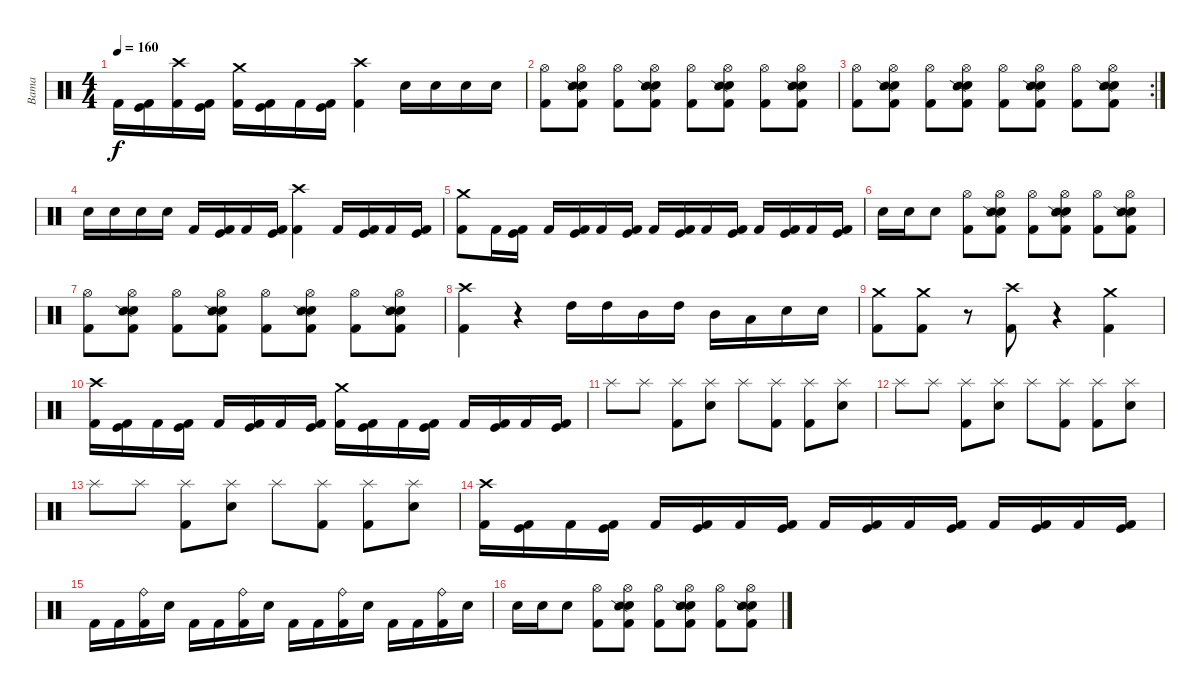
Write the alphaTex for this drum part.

\track ("Bama" "Bama") {instrument percussion}
\staff {score}
\articulation defaults
\ts (4 4)
\tempo 160
\clef neutral
\ks c "Kick (hit) 2".16{dy f}
("Kick (hit)" "Kick (hit) 2").16 ("Crash high (hit)" "Kick (hit) 2").16 ("Kick (hit)" "Kick (hit) 2").16 ("Crash medium (hit)" "Kick (hit) 2").16 ("Kick (hit)" "Kick (hit) 2").16 "Kick (hit) 2".16 ("Kick (hit)" "Kick (hit) 2").16 ("Crash high (hit)" "Kick (hit) 2").4 "Electric Snare (hit)".16 "Electric Snare (hit)".16 "Electric Snare (hit)".16 "Electric Snare (hit)".16 |
("Hi-Hat (open)" "Kick (hit) 2").8 ("Hi-Hat (open)" "Electric Snare (hit)" "Snare (side stick) 2" "Kick (hit) 2").8 ("Hi-Hat (open)" "Kick (hit) 2").8 ("Hi-Hat (open)" "Electric Snare (hit)" "Snare (side stick) 2" "Kick (hit) 2").8 ("Hi-Hat (open)" "Kick (hit) 2").8 ("Hi-Hat (open)" "Electric Snare (hit)" "Snare (side stick) 2" "Kick (hit) 2").8 ("Hi-Hat (open)" "Kick (hit) 2").8 ("Hi-Hat (open)" "Electric Snare (hit)" "Snare (side stick) 2" "Kick (hit) 2").8 |
\rc 2
("Hi-Hat (open)" "Kick (hit) 2").8 ("Hi-Hat (open)" "Electric Snare (hit)" "Snare (side stick) 2" "Kick (hit) 2").8 ("Hi-Hat (open)" "Kick (hit) 2").8 ("Hi-Hat (open)" "Electric Snare (hit)" "Snare (side stick) 2" "Kick (hit) 2").8 ("Hi-Hat (open)" "Kick (hit) 2").8 ("Hi-Hat (open)" "Electric Snare (hit)" "Snare (side stick) 2" "Kick (hit) 2").8 ("Hi-Hat (open)" "Kick (hit) 2").8 ("Hi-Hat (open)" "Electric Snare (hit)" "Snare (side stick) 2" "Kick (hit) 2").8 |
"Electric Snare (hit)".16 "Electric Snare (hit)".16 "Electric Snare (hit)".16 "Electric Snare (hit)".16 "Kick (hit) 2".16 ("Kick (hit)" "Kick (hit) 2").16 "Kick (hit) 2".16 ("Kick (hit)" "Kick (hit) 2").16 ("Crash high (hit)" "Kick (hit) 2").4 "Kick (hit) 2".16 ("Kick (hit)" "Kick (hit) 2").16 "Kick (hit) 2".16 ("Kick (hit)" "Kick (hit) 2").16 |
("Crash medium (hit)" "Kick (hit) 2").8 "Kick (hit) 2".16 ("Kick (hit)" "Kick (hit) 2").16 "Kick (hit) 2".16 ("Kick (hit)" "Kick (hit) 2").16 "Kick (hit) 2".16 ("Kick (hit)" "Kick (hit) 2").16 "Kick (hit) 2".16 ("Kick (hit)" "Kick (hit) 2").16 "Kick (hit) 2".16 ("Kick (hit)" "Kick (hit) 2").16 "Kick (hit) 2".16 ("Kick (hit)" "Kick (hit) 2").16 "Kick (hit) 2".16 ("Kick (hit)" "Kick (hit) 2").16 |
"Electric Snare (hit)".16 "Electric Snare (hit)".16 "Electric Snare (hit)".8 ("Hi-Hat (open)" "Kick (hit) 2").8 ("Hi-Hat (open)" "Electric Snare (hit)" "Snare (side stick) 2" "Kick (hit) 2").8 ("Hi-Hat (open)" "Kick (hit) 2").8 ("Hi-Hat (open)" "Electric Snare (hit)" "Snare (side stick) 2" "Kick (hit) 2").8 ("Hi-Hat (open)" "Kick (hit) 2").8 ("Hi-Hat (open)" "Electric Snare (hit)" "Snare (side stick) 2" "Kick (hit) 2").8 |
("Hi-Hat (open)" "Kick (hit) 2").8 ("Hi-Hat (open)" "Electric Snare (hit)" "Snare (side stick) 2" "Kick (hit) 2").8 ("Hi-Hat (open)" "Kick (hit) 2").8 ("Hi-Hat (open)" "Electric Snare (hit)" "Snare (side stick) 2" "Kick (hit) 2").8 ("Hi-Hat (open)" "Kick (hit) 2").8 ("Hi-Hat (open)" "Electric Snare (hit)" "Snare (side stick) 2" "Kick (hit) 2").8 ("Hi-Hat (open)" "Kick (hit) 2").8 ("Hi-Hat (open)" "Electric Snare (hit)" "Snare (side stick) 2" "Kick (hit) 2").8 |
("Crash high (hit)" "Kick (hit) 2").4 r.4 "High Tom (hit)".16 "High Tom (hit)".16 "Mid Tom (hit)".16 "High Tom (hit)".16 "Mid Tom (hit)".16 "Low Tom (hit)".16 "Electric Snare (hit)".16 "Electric Snare (hit)".16 |
("Crash medium (hit)" "Kick (hit) 2").8 ("Crash medium (hit)" "Kick (hit) 2").8 r.8 ("Crash high (hit)" "Kick (hit) 2").8 r.4 ("Crash medium (hit)" "Kick (hit) 2").4 |
("Crash high (hit)" "Kick (hit) 2").16 ("Kick (hit)" "Kick (hit) 2").16 "Kick (hit) 2".16 ("Kick (hit)" "Kick (hit) 2").16 "Kick (hit) 2".16 ("Kick (hit)" "Kick (hit) 2").16 "Kick (hit) 2".16 ("Kick (hit)" "Kick (hit) 2").16 ("Crash medium (hit)" "Kick (hit) 2").16 ("Kick (hit)" "Kick (hit) 2").16 "Kick (hit) 2".16 ("Kick (hit)" "Kick (hit) 2").16 "Kick (hit) 2".16 ("Kick (hit)" "Kick (hit) 2").16 "Kick (hit) 2".16 ("Kick (hit)" "Kick (hit) 2").16 |
"Splash (hit)".8 "Splash (hit)".8 ("Splash (hit)" "Kick (hit) 2").8 ("Splash (hit)" "Electric Snare (hit)").8 "Splash (hit)".8 ("Splash (hit)" "Kick (hit) 2").8 ("Splash (hit)" "Kick (hit) 2").8 ("Splash (hit)" "Electric Snare (hit)").8 |
"Splash (hit)".8 "Splash (hit)".8 ("Splash (hit)" "Kick (hit) 2").8 ("Splash (hit)" "Electric Snare (hit)").8 "Splash (hit)".8 ("Splash (hit)" "Kick (hit) 2").8 ("Splash (hit)" "Kick (hit) 2").8 ("Splash (hit)" "Electric Snare (hit)").8 |
"Splash (hit)".8 "Splash (hit)".8 ("Splash (hit)" "Kick (hit) 2").8 ("Splash (hit)" "Electric Snare (hit)").8 "Splash (hit)".8 ("Splash (hit)" "Kick (hit) 2").8 ("Splash (hit)" "Kick (hit) 2").8 ("Splash (hit)" "Electric Snare (hit)").8 |
("Crash high (hit)" "Kick (hit) 2").16 ("Kick (hit)" "Kick (hit) 2").16 "Kick (hit) 2".16 ("Kick (hit)" "Kick (hit) 2").16 "Kick (hit) 2".16 ("Kick (hit)" "Kick (hit) 2").16 "Kick (hit) 2".16 ("Kick (hit)" "Kick (hit) 2").16 "Kick (hit) 2".16 ("Kick (hit)" "Kick (hit) 2").16 "Kick (hit) 2".16 ("Kick (hit)" "Kick (hit) 2").16 "Kick (hit) 2".16 ("Kick (hit)" "Kick (hit) 2").16 "Kick (hit) 2".16 ("Kick (hit)" "Kick (hit) 2").16 |
"Kick (hit) 2".16 "Kick (hit) 2".16 ("Ride (bell)" "Kick (hit) 2").16 "Electric Snare (hit)".16 "Kick (hit) 2".16 "Kick (hit) 2".16 ("Ride (bell)" "Kick (hit) 2").16 "Electric Snare (hit)".16 "Kick (hit) 2".16 "Kick (hit) 2".16 ("Ride (bell)" "Kick (hit) 2").16 "Electric Snare (hit)".16 "Kick (hit) 2".16 "Kick (hit) 2".16 ("Ride (bell)" "Kick (hit) 2").16 "Electric Snare (hit)".16 |
"Electric Snare (hit)".16 "Electric Snare (hit)".16 "Electric Snare (hit)".8 ("Hi-Hat (open)" "Kick (hit) 2").8 ("Hi-Hat (open)" "Electric Snare (hit)" "Snare (side stick) 2" "Kick (hit) 2").8 ("Hi-Hat (open)" "Kick (hit) 2").8 ("Hi-Hat (open)" "Electric Snare (hit)" "Snare (side stick) 2" "Kick (hit) 2").8 ("Hi-Hat (open)" "Kick (hit) 2").8 ("Hi-Hat (open)" "Electric Snare (hit)" "Snare (side stick) 2" "Kick (hit) 2").8
